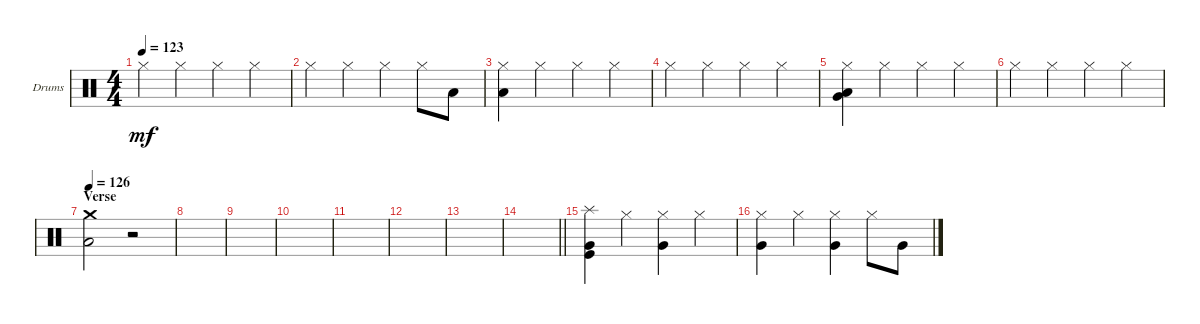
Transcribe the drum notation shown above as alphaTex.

\defaultSystemsLayout 4
\bracketExtendMode groupsimilarinstruments
\firstSystemTrackNameOrientation horizontal
\otherSystemsTrackNameOrientation horizontal
\chordDiagramsInScore
\track ("Drumkit" "Drums") {instrument percussion}
\staff {score}
\articulation defaults
\ts (4 4)
\tempo 123
\clef neutral
\scale
0.333333
\ks c "Hi-Hat (closed)".4{dy mf} "Hi-Hat (closed)".4 "Hi-Hat (closed)".4 "Hi-Hat (closed)".4
|
\scale
0.333333 "Hi-Hat (closed)".4 "Hi-Hat (closed)".4 "Hi-Hat (closed)".4 "Hi-Hat (closed)".8 "Low Tom (hit)".8 |
\scale
0.333333 ("Hi-Hat (closed)" "Low Tom (hit)").4 "Hi-Hat (closed)".4 "Hi-Hat (closed)".4 "Hi-Hat (closed)".4 |
\scale
0.333333 "Hi-Hat (closed)".4 "Hi-Hat (closed)".4 "Hi-Hat (closed)".4 "Hi-Hat (closed)".4 |
\scale
0.333333 ("Hi-Hat (closed)" "Very Low Tom (hit)" "Low Tom (hit)").4 "Hi-Hat (closed)".4 "Hi-Hat (closed)".4 "Hi-Hat (closed)".4 |
\scale
0.333333 "Hi-Hat (closed)".4 "Hi-Hat (closed)".4 "Hi-Hat (closed)".4 "Hi-Hat (closed)".4 |
\section ("" "Verse")
\tempo 126
\scale
0.333333 ("Low Tom (hit)" "Crash medium (hit)").2 r.2 |
\scale
0.333333 |
\scale
0.333333 |
\scale
0.333333 |
\scale
0.333333 |
\scale
0.333333 |
\scale
0.333333 |
\scale
0.333333
\barLineRight lightlight
|
\scale
0.333333 ("Kick (hit)" "Splash (hit)" "Very Low Tom (hit)").4 "Hi-Hat (closed)".4 ("Hi-Hat (closed)" "Very Low Tom (hit)").4 "Hi-Hat (closed)".4 |
\scale
0.333333 ("Hi-Hat (closed)" "Very Low Tom (hit)").4 "Hi-Hat (closed)".4 ("Hi-Hat (closed)" "Very Low Tom (hit)").4 "Hi-Hat (closed)".8 "Very Low Tom (hit)".8
